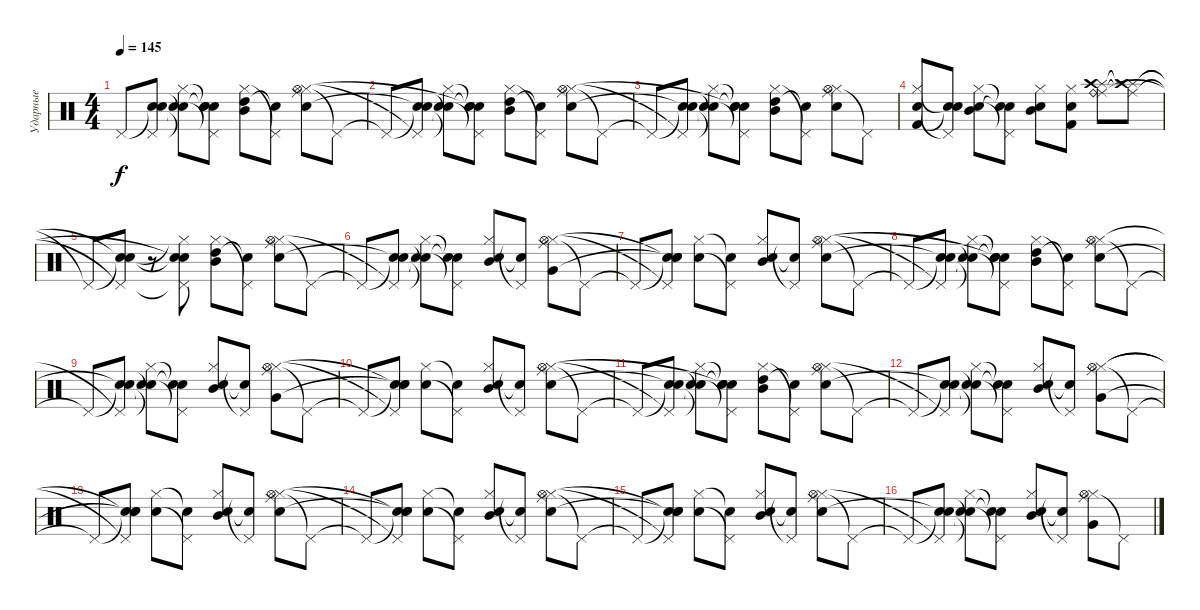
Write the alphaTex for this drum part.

\track ("Ударные" "Ударные") {instrument percussion}
\staff {score}
\articulation defaults
\ts (4 4)
\tempo 145
\clef neutral
\ks c "Pedal Hi-Hat (hit)"{t}.8{dy f}
("Snare (hit)"{t} "Pedal Hi-Hat (hit)"{t} "Snare (hit)"{t}).8 ("Snare (hit)"{t} "Snare (hit) 2"{t} "Hi-Hat (closed)"{t}).8 ("Snare (hit)"{t} "Pedal Hi-Hat (hit)"{t} "Snare (hit)"{t} "Snare (hit)"{t}).8 ("Hi-Hat (closed)" "High Tom (hit)" "Mid Tom (hit)").8 ("Pedal Hi-Hat (hit)"{t} "Snare (hit)"{t}).8 ("Ride (middle)" "Hi-Hat (closed)" "Snare (hit) 2" "Hi-Hat (open)").8 "Pedal Hi-Hat (hit)"{t}.8 |
"Pedal Hi-Hat (hit)"{t}.8 ("Snare (hit)"{t} "Pedal Hi-Hat (hit)"{t} "Snare (hit)"{t}).8 ("Snare (hit)"{t} "Snare (hit) 2"{t} "Hi-Hat (closed)"{t}).8 ("Snare (hit)"{t} "Pedal Hi-Hat (hit)"{t} "Snare (hit)"{t} "Snare (hit)"{t}).8 ("Hi-Hat (closed)" "High Tom (hit)" "Mid Tom (hit)").8 ("Pedal Hi-Hat (hit)"{t} "Snare (hit)"{t}).8 ("Ride (middle)" "Hi-Hat (closed)" "Snare (hit) 2" "Hi-Hat (open)").8 "Pedal Hi-Hat (hit)"{t}.8 |
"Pedal Hi-Hat (hit)"{t}.8 ("Snare (hit)"{t} "Pedal Hi-Hat (hit)"{t} "Snare (hit)"{t}).8 ("Snare (hit)"{t} "Snare (hit) 2"{t} "Hi-Hat (closed)"{t}).8 ("Snare (hit)"{t} "Pedal Hi-Hat (hit)"{t} "Snare (hit)"{t} "Snare (hit)"{t}).8 ("Hi-Hat (closed)" "High Tom (hit)" "Mid Tom (hit)").8 ("Pedal Hi-Hat (hit)"{t} "Snare (hit)"{t}).8 ("Ride (middle)" "Hi-Hat (closed)" "Snare (hit) 2" "Hi-Hat (open)").8 "Pedal Hi-Hat (hit)"{t}.8 |
("Kick (hit) 2" "Snare (hit) 2" "Hi-Hat (closed)").8 ("Snare (hit)"{t} "Pedal Hi-Hat (hit)"{t} "Snare (hit)"{t}).8 ("Mid Tom (hit)" "Electric Snare (hit)" "Hi-Hat (closed)").8 ("Snare (hit)"{t} "Pedal Hi-Hat (hit)"{t} "Snare (hit)"{t}).8 ("Mid Tom (hit)" "Electric Snare (hit)" "Hi-Hat (closed)").8 ("Kick (hit) 2" "Snare (hit) 2" "Hi-Hat (closed)").8 ("Splash (hit)" "Ride (middle)" "Crash high (hit)" "Ride (bell)").8 ("Splash (hit)"{t} "Ride (middle)"{t} "Crash high (hit)"{t}).8 |
"Pedal Hi-Hat (hit)"{t}.8 ("Snare (hit)"{t} "Pedal Hi-Hat (hit)"{t} "Snare (hit)"{t}).8 r.8 ("Hi-Hat (closed)"{t} "Pedal Hi-Hat (hit)"{t} "Snare (hit)"{t} "Snare (hit)"{t}).8 ("Hi-Hat (closed)" "High Tom (hit)" "Mid Tom (hit)").8 ("Pedal Hi-Hat (hit)"{t} "Snare (hit)"{t}).8 ("Ride (middle)" "Hi-Hat (closed)" "Snare (hit) 2" "Hi-Hat (open)").8 "Pedal Hi-Hat (hit)"{t}.8 |
"Pedal Hi-Hat (hit)"{t}.8 ("Snare (hit)"{t} "Pedal Hi-Hat (hit)"{t} "Snare (hit)"{t}).8 ("Snare (hit)"{t} "Snare (hit) 2"{t} "Hi-Hat (closed)"{t}).8 ("Pedal Hi-Hat (hit)"{t} "Snare (hit)"{t} "Snare (hit)"{t}).8 ("Hi-Hat (closed)" "Snare (hit) 2" "Mid Tom (hit)").8 ("Pedal Hi-Hat (hit)"{t} "Snare (hit)"{t}).8 ("Ride (middle)" "Hi-Hat (closed)" "Very Low Tom (hit)" "Hi-Hat (open)").8 "Pedal Hi-Hat (hit)"{t}.8 |
"Pedal Hi-Hat (hit)"{t}.8 ("Snare (hit)"{t} "Pedal Hi-Hat (hit)"{t} "Snare (hit)"{t} "Snare (hit)"{t}).8 ("Snare (hit) 2" "Hi-Hat (closed)").8 ("Pedal Hi-Hat (hit)"{t} "Snare (hit)"{t}).8 ("Hi-Hat (closed)" "Snare (hit) 2" "Mid Tom (hit)").8 ("Pedal Hi-Hat (hit)"{t} "Snare (hit)"{t}).8 ("Ride (middle)" "Hi-Hat (closed)" "Snare (hit) 2" "Hi-Hat (open)").8 "Pedal Hi-Hat (hit)"{t}.8 |
"Pedal Hi-Hat (hit)"{t}.8 ("Snare (hit)"{t} "Pedal Hi-Hat (hit)"{t} "Snare (hit)"{t}).8 ("Snare (hit)"{t} "Snare (hit) 2"{t} "Hi-Hat (closed)"{t}).8 ("Snare (hit)"{t} "Pedal Hi-Hat (hit)"{t} "Snare (hit)"{t} "Snare (hit)"{t}).8 ("Hi-Hat (closed)" "High Tom (hit)" "Mid Tom (hit)").8 ("Pedal Hi-Hat (hit)"{t} "Snare (hit)"{t}).8 ("Ride (middle)" "Hi-Hat (closed)" "Snare (hit) 2" "Hi-Hat (open)").8 "Pedal Hi-Hat (hit)"{t}.8 |
"Pedal Hi-Hat (hit)"{t}.8 ("Snare (hit)"{t} "Pedal Hi-Hat (hit)"{t} "Snare (hit)"{t}).8 ("Snare (hit)"{t} "Snare (hit) 2"{t} "Hi-Hat (closed)"{t}).8 ("Pedal Hi-Hat (hit)"{t} "Snare (hit)"{t} "Snare (hit)"{t}).8 ("Hi-Hat (closed)" "Snare (hit) 2" "Mid Tom (hit)").8 ("Pedal Hi-Hat (hit)"{t} "Snare (hit)"{t}).8 ("Ride (middle)" "Hi-Hat (closed)" "Very Low Tom (hit)" "Hi-Hat (open)").8 "Pedal Hi-Hat (hit)"{t}.8 |
"Pedal Hi-Hat (hit)"{t}.8 ("Snare (hit)"{t} "Pedal Hi-Hat (hit)"{t} "Snare (hit)"{t} "Snare (hit)"{t}).8 ("Snare (hit) 2" "Hi-Hat (closed)").8 ("Pedal Hi-Hat (hit)"{t} "Snare (hit)"{t}).8 ("Hi-Hat (closed)" "Snare (hit) 2" "Mid Tom (hit)").8 ("Pedal Hi-Hat (hit)"{t} "Snare (hit)"{t}).8 ("Ride (middle)" "Hi-Hat (closed)" "Snare (hit) 2" "Hi-Hat (open)").8 "Pedal Hi-Hat (hit)"{t}.8 |
"Pedal Hi-Hat (hit)"{t}.8 ("Snare (hit)"{t} "Pedal Hi-Hat (hit)"{t} "Snare (hit)"{t}).8 ("Snare (hit)"{t} "Snare (hit) 2"{t} "Hi-Hat (closed)"{t}).8 ("Snare (hit)"{t} "Pedal Hi-Hat (hit)"{t} "Snare (hit)"{t} "Snare (hit)"{t}).8 ("Hi-Hat (closed)" "High Tom (hit)" "Mid Tom (hit)").8 ("Pedal Hi-Hat (hit)"{t} "Snare (hit)"{t}).8 ("Ride (middle)" "Hi-Hat (closed)" "Snare (hit) 2" "Hi-Hat (open)").8 "Pedal Hi-Hat (hit)"{t}.8 |
"Pedal Hi-Hat (hit)"{t}.8 ("Snare (hit)"{t} "Pedal Hi-Hat (hit)"{t} "Snare (hit)"{t}).8 ("Snare (hit)"{t} "Snare (hit) 2"{t} "Hi-Hat (closed)"{t}).8 ("Pedal Hi-Hat (hit)"{t} "Snare (hit)"{t} "Snare (hit)"{t}).8 ("Hi-Hat (closed)" "Snare (hit) 2" "Mid Tom (hit)").8 ("Pedal Hi-Hat (hit)"{t} "Snare (hit)"{t}).8 ("Ride (middle)" "Hi-Hat (closed)" "Very Low Tom (hit)" "Hi-Hat (open)").8 "Pedal Hi-Hat (hit)"{t}.8 |
"Pedal Hi-Hat (hit)"{t}.8 ("Snare (hit)"{t} "Pedal Hi-Hat (hit)"{t} "Snare (hit)"{t} "Snare (hit)"{t}).8 ("Snare (hit) 2" "Hi-Hat (closed)").8 ("Pedal Hi-Hat (hit)"{t} "Snare (hit)"{t}).8 ("Hi-Hat (closed)" "Snare (hit) 2" "Mid Tom (hit)").8 ("Pedal Hi-Hat (hit)"{t} "Snare (hit)"{t}).8 ("Ride (middle)" "Hi-Hat (closed)" "Snare (hit) 2" "Hi-Hat (open)").8 "Pedal Hi-Hat (hit)"{t}.8 |
"Pedal Hi-Hat (hit)"{t}.8 ("Snare (hit)"{t} "Pedal Hi-Hat (hit)"{t} "Snare (hit)"{t} "Snare (hit)"{t}).8 ("Snare (hit) 2" "Hi-Hat (closed)").8 ("Pedal Hi-Hat (hit)"{t} "Snare (hit)"{t}).8 ("Hi-Hat (closed)" "Snare (hit) 2" "Mid Tom (hit)").8 ("Pedal Hi-Hat (hit)"{t} "Snare (hit)"{t}).8 ("Ride (middle)" "Hi-Hat (closed)" "Snare (hit) 2" "Hi-Hat (open)").8 "Pedal Hi-Hat (hit)"{t}.8 |
"Pedal Hi-Hat (hit)"{t}.8 ("Snare (hit)"{t} "Pedal Hi-Hat (hit)"{t} "Snare (hit)"{t} "Snare (hit)"{t}).8 ("Snare (hit) 2" "Hi-Hat (closed)").8 ("Pedal Hi-Hat (hit)"{t} "Snare (hit)"{t}).8 ("Hi-Hat (closed)" "Snare (hit) 2" "Mid Tom (hit)").8 ("Pedal Hi-Hat (hit)"{t} "Snare (hit)"{t}).8 ("Ride (middle)" "Hi-Hat (closed)" "Snare (hit) 2" "Hi-Hat (open)").8 "Pedal Hi-Hat (hit)"{t}.8 |
"Pedal Hi-Hat (hit)"{t}.8 ("Snare (hit)"{t} "Pedal Hi-Hat (hit)"{t} "Snare (hit)"{t}).8 ("Snare (hit)"{t} "Snare (hit) 2"{t} "Hi-Hat (closed)"{t}).8 ("Pedal Hi-Hat (hit)"{t} "Snare (hit)"{t} "Snare (hit)"{t}).8 ("Hi-Hat (closed)" "Snare (hit) 2" "Mid Tom (hit)").8 ("Pedal Hi-Hat (hit)"{t} "Snare (hit)"{t}).8 ("Ride (middle)" "Hi-Hat (closed)" "Very Low Tom (hit)" "Hi-Hat (open)").8 "Pedal Hi-Hat (hit)"{t}.8
